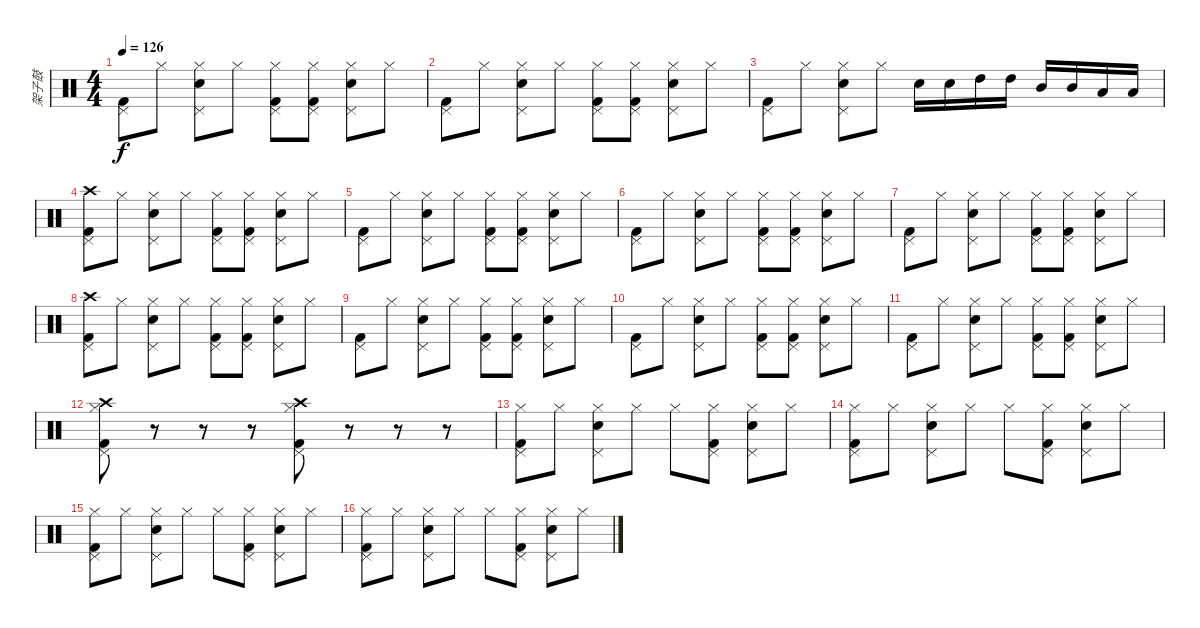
\track ("架子鼓" "架子鼓") {instrument percussion}
\staff {score}
\articulation defaults
\ts (4 4)
\tempo 126
\clef neutral
\ks c
("Pedal Hi-Hat (hit)" "Kick (hit) 2").8{dy f} "Hi-Hat (closed)".8 ("Pedal Hi-Hat (hit)" "Hi-Hat (closed)" "Snare (hit) 2").8 "Hi-Hat (closed)".8 ("Pedal Hi-Hat (hit)" "Hi-Hat (closed)" "Kick (hit) 2").8 ("Pedal Hi-Hat (hit)" "Hi-Hat (closed)" "Kick (hit) 2").8 ("Pedal Hi-Hat (hit)" "Hi-Hat (closed)" "Snare (hit) 2").8 "Hi-Hat (closed)".8 |
("Pedal Hi-Hat (hit)" "Kick (hit) 2").8 "Hi-Hat (closed)".8 ("Pedal Hi-Hat (hit)" "Hi-Hat (closed)" "Snare (hit) 2").8 "Hi-Hat (closed)".8 ("Pedal Hi-Hat (hit)" "Hi-Hat (closed)" "Kick (hit) 2").8 ("Pedal Hi-Hat (hit)" "Hi-Hat (closed)" "Kick (hit) 2").8 ("Pedal Hi-Hat (hit)" "Hi-Hat (closed)" "Snare (hit) 2").8 "Hi-Hat (closed)".8 |
("Pedal Hi-Hat (hit)" "Kick (hit) 2").8 "Hi-Hat (closed)".8 ("Pedal Hi-Hat (hit)" "Hi-Hat (closed)" "Snare (hit) 2").8 "Hi-Hat (closed)".8 "Snare (hit) 2".16 "Snare (hit) 2".16 "High Tom (hit)".16 "High Tom (hit)".16 "Mid Tom (hit)".16 "Mid Tom (hit)".16 "Low Tom (hit)".16 "Low Tom (hit)".16 |
("Crash high (hit)" "Pedal Hi-Hat (hit)" "Kick (hit) 2").8 "Hi-Hat (closed)".8 ("Pedal Hi-Hat (hit)" "Hi-Hat (closed)" "Snare (hit) 2").8 "Hi-Hat (closed)".8 ("Pedal Hi-Hat (hit)" "Hi-Hat (closed)" "Kick (hit) 2").8 ("Pedal Hi-Hat (hit)" "Hi-Hat (closed)" "Kick (hit) 2").8 ("Pedal Hi-Hat (hit)" "Hi-Hat (closed)" "Snare (hit) 2").8 "Hi-Hat (closed)".8 |
("Pedal Hi-Hat (hit)" "Kick (hit) 2").8 "Hi-Hat (closed)".8 ("Pedal Hi-Hat (hit)" "Hi-Hat (closed)" "Snare (hit) 2").8 "Hi-Hat (closed)".8 ("Pedal Hi-Hat (hit)" "Hi-Hat (closed)" "Kick (hit) 2").8 ("Pedal Hi-Hat (hit)" "Hi-Hat (closed)" "Kick (hit) 2").8 ("Pedal Hi-Hat (hit)" "Hi-Hat (closed)" "Snare (hit) 2").8 "Hi-Hat (closed)".8 |
("Pedal Hi-Hat (hit)" "Kick (hit) 2").8 "Hi-Hat (closed)".8 ("Pedal Hi-Hat (hit)" "Hi-Hat (closed)" "Snare (hit) 2").8 "Hi-Hat (closed)".8 ("Pedal Hi-Hat (hit)" "Hi-Hat (closed)" "Kick (hit) 2").8 ("Pedal Hi-Hat (hit)" "Hi-Hat (closed)" "Kick (hit) 2").8 ("Pedal Hi-Hat (hit)" "Hi-Hat (closed)" "Snare (hit) 2").8 "Hi-Hat (closed)".8 |
("Pedal Hi-Hat (hit)" "Kick (hit) 2").8 "Hi-Hat (closed)".8 ("Pedal Hi-Hat (hit)" "Hi-Hat (closed)" "Snare (hit) 2").8 "Hi-Hat (closed)".8 ("Pedal Hi-Hat (hit)" "Hi-Hat (closed)" "Kick (hit) 2").8 ("Pedal Hi-Hat (hit)" "Hi-Hat (closed)" "Kick (hit) 2").8 ("Pedal Hi-Hat (hit)" "Hi-Hat (closed)" "Snare (hit) 2").8 "Hi-Hat (closed)".8 |
("Crash high (hit)" "Pedal Hi-Hat (hit)" "Kick (hit) 2").8 "Hi-Hat (closed)".8 ("Pedal Hi-Hat (hit)" "Hi-Hat (closed)" "Snare (hit) 2").8 "Hi-Hat (closed)".8 ("Pedal Hi-Hat (hit)" "Hi-Hat (closed)" "Kick (hit) 2").8 ("Pedal Hi-Hat (hit)" "Hi-Hat (closed)" "Kick (hit) 2").8 ("Pedal Hi-Hat (hit)" "Hi-Hat (closed)" "Snare (hit) 2").8 "Hi-Hat (closed)".8 |
("Pedal Hi-Hat (hit)" "Kick (hit) 2").8 "Hi-Hat (closed)".8 ("Pedal Hi-Hat (hit)" "Hi-Hat (closed)" "Snare (hit) 2").8 "Hi-Hat (closed)".8 ("Pedal Hi-Hat (hit)" "Hi-Hat (closed)" "Kick (hit) 2").8 ("Pedal Hi-Hat (hit)" "Hi-Hat (closed)" "Kick (hit) 2").8 ("Pedal Hi-Hat (hit)" "Hi-Hat (closed)" "Snare (hit) 2").8 "Hi-Hat (closed)".8 |
("Pedal Hi-Hat (hit)" "Kick (hit) 2").8 "Hi-Hat (closed)".8 ("Pedal Hi-Hat (hit)" "Hi-Hat (closed)" "Snare (hit) 2").8 "Hi-Hat (closed)".8 ("Pedal Hi-Hat (hit)" "Hi-Hat (closed)" "Kick (hit) 2").8 ("Pedal Hi-Hat (hit)" "Hi-Hat (closed)" "Kick (hit) 2").8 ("Pedal Hi-Hat (hit)" "Hi-Hat (closed)" "Snare (hit) 2").8 "Hi-Hat (closed)".8 |
("Pedal Hi-Hat (hit)" "Kick (hit) 2").8 "Hi-Hat (closed)".8 ("Pedal Hi-Hat (hit)" "Hi-Hat (closed)" "Snare (hit) 2").8 "Hi-Hat (closed)".8 ("Pedal Hi-Hat (hit)" "Hi-Hat (closed)" "Kick (hit) 2").8 ("Pedal Hi-Hat (hit)" "Hi-Hat (closed)" "Kick (hit) 2").8 ("Pedal Hi-Hat (hit)" "Hi-Hat (closed)" "Snare (hit) 2").8 "Hi-Hat (closed)".8 |
("Crash high (hit)" "Pedal Hi-Hat (hit)" "Hi-Hat (closed)" "Kick (hit) 2").8 r.8 r.8 r.8 ("Crash high (hit)" "Pedal Hi-Hat (hit)" "Hi-Hat (closed)" "Kick (hit) 2").8 r.8 r.8 r.8 |
("Pedal Hi-Hat (hit)" "Hi-Hat (closed)" "Kick (hit) 2").8 "Hi-Hat (closed)".8 ("Pedal Hi-Hat (hit)" "Hi-Hat (closed)" "Snare (hit) 2").8 "Hi-Hat (closed)".8 "Hi-Hat (closed)".8 ("Pedal Hi-Hat (hit)" "Hi-Hat (closed)" "Kick (hit) 2").8 ("Pedal Hi-Hat (hit)" "Hi-Hat (closed)" "Snare (hit) 2").8 "Hi-Hat (closed)".8 |
("Pedal Hi-Hat (hit)" "Hi-Hat (closed)" "Kick (hit) 2").8 "Hi-Hat (closed)".8 ("Pedal Hi-Hat (hit)" "Hi-Hat (closed)" "Snare (hit) 2").8 "Hi-Hat (closed)".8 "Hi-Hat (closed)".8 ("Pedal Hi-Hat (hit)" "Hi-Hat (closed)" "Kick (hit) 2").8 ("Pedal Hi-Hat (hit)" "Hi-Hat (closed)" "Snare (hit) 2").8 "Hi-Hat (closed)".8 |
("Pedal Hi-Hat (hit)" "Hi-Hat (closed)" "Kick (hit) 2").8 "Hi-Hat (closed)".8 ("Pedal Hi-Hat (hit)" "Hi-Hat (closed)" "Snare (hit) 2").8 "Hi-Hat (closed)".8 "Hi-Hat (closed)".8 ("Pedal Hi-Hat (hit)" "Hi-Hat (closed)" "Kick (hit) 2").8 ("Pedal Hi-Hat (hit)" "Hi-Hat (closed)" "Snare (hit) 2").8 "Hi-Hat (closed)".8 |
("Pedal Hi-Hat (hit)" "Hi-Hat (closed)" "Kick (hit) 2").8 "Hi-Hat (closed)".8 ("Pedal Hi-Hat (hit)" "Hi-Hat (closed)" "Snare (hit) 2").8 "Hi-Hat (closed)".8 "Hi-Hat (closed)".8 ("Pedal Hi-Hat (hit)" "Hi-Hat (closed)" "Kick (hit) 2").8 ("Pedal Hi-Hat (hit)" "Hi-Hat (closed)" "Snare (hit) 2").8 "Hi-Hat (closed)".8
